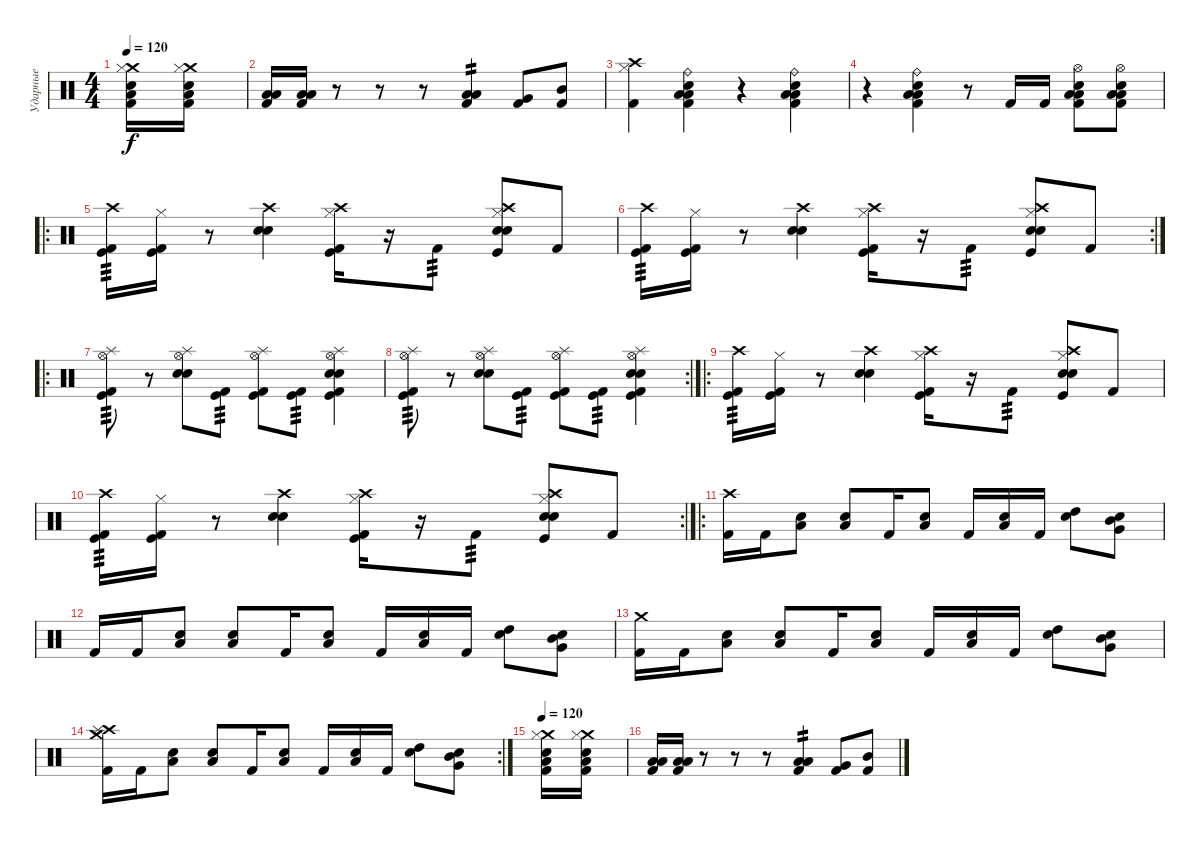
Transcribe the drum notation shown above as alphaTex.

\track ("Ударные" "Ударные") {instrument percussion}
\staff {score}
\articulation defaults
\ts (4 4)
\tempo 120
\clef neutral
\ks c
("Crash medium (hit)" "Low Tom (hit)" "Snare (hit) 2" "Hi-Hat (closed)" "Kick (hit) 2").16{dy f} ("Crash medium (hit)" "Low Tom (hit)" "Snare (hit) 2" "Hi-Hat (closed)" "Kick (hit) 2").16 |
("Low Floor Tom (hit)" "Low Tom (hit)" "Kick (hit) 2").16 ("Low Floor Tom (hit)" "Low Tom (hit)" "Kick (hit) 2").16 r.8 r.8 r.8 ("Low Floor Tom (hit)" "Low Tom (hit)" "Kick (hit) 2").4{tp 2} ("Very Low Tom (hit)" "Kick (hit) 2").8 ("Mid Tom (hit)" "Kick (hit) 2").8 |
("Crash high (hit)" "Hi-Hat (closed)" "Kick (hit) 2").4 ("Ride (bell)" "Low Floor Tom (hit)" "Low Tom (hit)" "Snare (hit) 2" "Kick (hit) 2").4 r.4 ("Ride (bell)" "Low Floor Tom (hit)" "Low Tom (hit)" "Snare (hit) 2" "Kick (hit) 2").4 |
r.4 ("Ride (bell)" "Low Floor Tom (hit)" "Low Tom (hit)" "Snare (hit) 2" "Kick (hit) 2").4 r.8 "Kick (hit) 2".16 "Kick (hit) 2".16 ("Hi-Hat (open)" "Low Floor Tom (hit)" "Low Tom (hit)" "Snare (hit) 2" "Kick (hit) 2").8 ("Hi-Hat (open)" "Low Floor Tom (hit)" "Low Tom (hit)" "Snare (hit) 2" "Kick (hit) 2").8 |
\ro
("Crash high (hit)" "Kick (hit)" "Kick (hit) 2").16{tp 3} ("Kick (hit)" "Hi-Hat (closed)" "Kick (hit) 2").16 r.8 ("Crash high (hit)" "Electric Snare (hit)" "Snare (hit) 2").4 ("Crash high (hit)" "Hi-Hat (closed)" "Kick (hit)" "Kick (hit) 2").16 r.16 "Kick (hit) 2".8{tp 3} ("Crash high (hit)" "Hi-Hat (closed)" "Electric Snare (hit)" "Snare (hit) 2" "Kick (hit)").8 "Kick (hit) 2".8 |
\rc 2
("Crash high (hit)" "Kick (hit)" "Kick (hit) 2").16{tp 3} ("Kick (hit)" "Hi-Hat (closed)" "Kick (hit) 2").16 r.8 ("Crash high (hit)" "Electric Snare (hit)" "Snare (hit) 2").4 ("Crash high (hit)" "Hi-Hat (closed)" "Kick (hit)" "Kick (hit) 2").16 r.16 "Kick (hit) 2".8{tp 3} ("Crash high (hit)" "Hi-Hat (closed)" "Electric Snare (hit)" "Snare (hit) 2" "Kick (hit)").8 "Kick (hit) 2".8 |
\ro
("Hi-Hat (open)" "Splash (hit)" "Kick (hit)" "Kick (hit) 2").8{tp 3} r.8 ("Hi-Hat (open)" "Splash (hit)" "Snare (hit) 2" "Electric Snare (hit)").8 ("Kick (hit)" "Kick (hit) 2").8{tp 3} ("Hi-Hat (open)" "Splash (hit)" "Kick (hit)" "Kick (hit) 2").8 ("Kick (hit)" "Kick (hit) 2").8{tp 3} ("Hi-Hat (open)" "Splash (hit)" "Snare (hit) 2" "Electric Snare (hit)" "Kick (hit)" "Kick (hit) 2").4 |
\rc 2
("Hi-Hat (open)" "Splash (hit)" "Kick (hit)" "Kick (hit) 2").8{tp 3} r.8 ("Hi-Hat (open)" "Splash (hit)" "Snare (hit) 2" "Electric Snare (hit)").8 ("Kick (hit)" "Kick (hit) 2").8{tp 3} ("Hi-Hat (open)" "Splash (hit)" "Kick (hit)" "Kick (hit) 2").8 ("Kick (hit)" "Kick (hit) 2").8{tp 3} ("Hi-Hat (open)" "Splash (hit)" "Snare (hit) 2" "Electric Snare (hit)" "Kick (hit)" "Kick (hit) 2").4 |
\ro
("Crash high (hit)" "Kick (hit)" "Kick (hit) 2").16{tp 3} ("Kick (hit)" "Hi-Hat (closed)" "Kick (hit) 2").16 r.8 ("Crash high (hit)" "Electric Snare (hit)" "Snare (hit) 2").4 ("Crash high (hit)" "Hi-Hat (closed)" "Kick (hit)" "Kick (hit) 2").16 r.16 "Kick (hit) 2".8{tp 3} ("Crash high (hit)" "Hi-Hat (closed)" "Electric Snare (hit)" "Snare (hit) 2" "Kick (hit)").8 "Kick (hit) 2".8 |
\rc 2
("Crash high (hit)" "Kick (hit)" "Kick (hit) 2").16{tp 3} ("Kick (hit)" "Hi-Hat (closed)" "Kick (hit) 2").16 r.8 ("Crash high (hit)" "Electric Snare (hit)" "Snare (hit) 2").4 ("Crash high (hit)" "Hi-Hat (closed)" "Kick (hit)" "Kick (hit) 2").16 r.16 "Kick (hit) 2".8{tp 3} ("Crash high (hit)" "Hi-Hat (closed)" "Electric Snare (hit)" "Snare (hit) 2" "Kick (hit)").8 "Kick (hit) 2".8 |
\ro
("Crash high (hit)" "Kick (hit) 2").16 "Kick (hit) 2".16 ("Low Floor Tom (hit)" "Electric Snare (hit)").8 ("Low Floor Tom (hit)" "Electric Snare (hit)").8 "Kick (hit) 2".16 ("Low Floor Tom (hit)" "Electric Snare (hit)").8 "Kick (hit) 2".16 ("Low Floor Tom (hit)" "Electric Snare (hit)").16 "Kick (hit) 2".16 ("High Tom (hit)" "Electric Snare (hit)").8 ("Very Low Tom (hit)" "Mid Tom (hit)" "Electric Snare (hit)").8 |
"Kick (hit) 2".16 "Kick (hit) 2".16 ("Low Floor Tom (hit)" "Electric Snare (hit)").8 ("Low Floor Tom (hit)" "Electric Snare (hit)").8 "Kick (hit) 2".16 ("Low Floor Tom (hit)" "Electric Snare (hit)").8 "Kick (hit) 2".16 ("Low Floor Tom (hit)" "Electric Snare (hit)").16 "Kick (hit) 2".16 ("High Tom (hit)" "Electric Snare (hit)").8 ("Very Low Tom (hit)" "Mid Tom (hit)" "Electric Snare (hit)").8 |
("Crash medium (hit)" "Kick (hit) 2").16 "Kick (hit) 2".16 ("Low Floor Tom (hit)" "Electric Snare (hit)").8 ("Low Floor Tom (hit)" "Electric Snare (hit)").8 "Kick (hit) 2".16 ("Low Floor Tom (hit)" "Electric Snare (hit)").8 "Kick (hit) 2".16 ("Low Floor Tom (hit)" "Electric Snare (hit)").16 "Kick (hit) 2".16 ("High Tom (hit)" "Electric Snare (hit)").8 ("Very Low Tom (hit)" "Mid Tom (hit)" "Electric Snare (hit)").8 |
\rc 2
("Crash high (hit)" "Crash medium (hit)" "Splash (hit)" "Kick (hit) 2").16 "Kick (hit) 2".16 ("Low Floor Tom (hit)" "Electric Snare (hit)").8 ("Low Floor Tom (hit)" "Electric Snare (hit)").8 "Kick (hit) 2".16 ("Low Floor Tom (hit)" "Electric Snare (hit)").8 "Kick (hit) 2".16 ("Low Floor Tom (hit)" "Electric Snare (hit)").16 "Kick (hit) 2".16 ("High Tom (hit)" "Electric Snare (hit)").8 ("Very Low Tom (hit)" "Mid Tom (hit)" "Electric Snare (hit)").8 |
\tempo 120
("Crash medium (hit)" "Low Tom (hit)" "Snare (hit) 2" "Hi-Hat (closed)" "Kick (hit) 2").16 ("Crash medium (hit)" "Low Tom (hit)" "Snare (hit) 2" "Hi-Hat (closed)" "Kick (hit) 2").16 |
("Low Floor Tom (hit)" "Low Tom (hit)" "Kick (hit) 2").16 ("Low Floor Tom (hit)" "Low Tom (hit)" "Kick (hit) 2").16 r.8 r.8 r.8 ("Low Floor Tom (hit)" "Low Tom (hit)" "Kick (hit) 2").4{tp 2} ("Very Low Tom (hit)" "Kick (hit) 2").8 ("Mid Tom (hit)" "Kick (hit) 2").8
